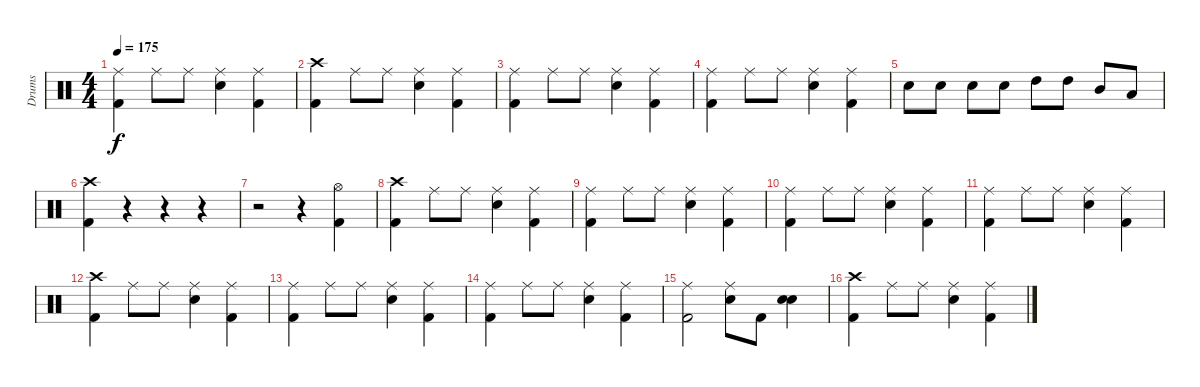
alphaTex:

\track ("Drums" "Drums") {instrument percussion}
\staff {score}
\articulation defaults
\ts (4 4)
\tempo 175
\clef neutral
\ks c
("Ride (middle)" "Kick (hit) 2").4{dy f} "Ride (middle)".8 "Ride (middle)".8 ("Ride (middle)" "Snare (hit) 2").4 ("Ride (middle)" "Kick (hit) 2").4 |
("Crash high (hit)" "Kick (hit) 2").4 "Ride (middle)".8 "Ride (middle)".8 ("Ride (middle)" "Snare (hit) 2").4 ("Ride (middle)" "Kick (hit) 2").4 |
("Ride (middle)" "Kick (hit) 2").4 "Ride (middle)".8 "Ride (middle)".8 ("Ride (middle)" "Snare (hit) 2").4 ("Ride (middle)" "Kick (hit) 2").4 |
("Ride (middle)" "Kick (hit) 2").4 "Ride (middle)".8 "Ride (middle)".8 ("Ride (middle)" "Snare (hit) 2").4 ("Ride (middle)" "Kick (hit) 2").4 |
"Snare (hit) 2".8 "Snare (hit) 2".8 "Snare (hit) 2".8 "Snare (hit) 2".8 "High Tom (hit)".8 "High Tom (hit)".8 "Mid Tom (hit)".8 "Low Tom (hit)".8 |
("Crash high (hit)"{pm} "Kick (hit) 2").4 r.4 r.4 r.4 |
r.2 r.4 ("Hi-Hat (open)"{pm} "Kick (hit) 2").4 |
("Crash high (hit)" "Kick (hit) 2").4 "Ride (middle)".8 "Ride (middle)".8 ("Ride (middle)" "Snare (hit) 2").4 ("Ride (middle)" "Kick (hit) 2").4 |
("Ride (middle)" "Kick (hit) 2").4 "Ride (middle)".8 "Ride (middle)".8 ("Ride (middle)" "Snare (hit) 2").4 ("Ride (middle)" "Kick (hit) 2").4 |
("Ride (middle)" "Kick (hit) 2").4 "Ride (middle)".8 "Ride (middle)".8 ("Ride (middle)" "Snare (hit) 2").4 ("Ride (middle)" "Kick (hit) 2").4 |
("Ride (middle)" "Kick (hit) 2").4 "Ride (middle)".8 "Ride (middle)".8 ("Ride (middle)" "Snare (hit) 2").4 ("Ride (middle)" "Kick (hit) 2").4 |
("Crash high (hit)" "Kick (hit) 2").4 "Ride (middle)".8 "Ride (middle)".8 ("Ride (middle)" "Snare (hit) 2").4 ("Ride (middle)" "Kick (hit) 2").4 |
("Ride (middle)" "Kick (hit) 2").4 "Ride (middle)".8 "Ride (middle)".8 ("Ride (middle)" "Snare (hit) 2").4 ("Ride (middle)" "Kick (hit) 2").4 |
("Ride (middle)" "Kick (hit) 2").4 "Ride (middle)".8 "Ride (middle)".8 ("Ride (middle)" "Snare (hit) 2").4 ("Ride (middle)" "Kick (hit) 2").4 |
("Ride (middle)" "Kick (hit) 2").2 ("Ride (middle)" "Snare (hit) 2").8 "Kick (hit) 2".8 ("Snare (hit)" "Snare (hit) 2").4 |
("Crash high (hit)" "Kick (hit) 2").4 "Ride (middle)".8 "Ride (middle)".8 ("Ride (middle)" "Snare (hit) 2").4 ("Ride (middle)" "Kick (hit) 2").4
